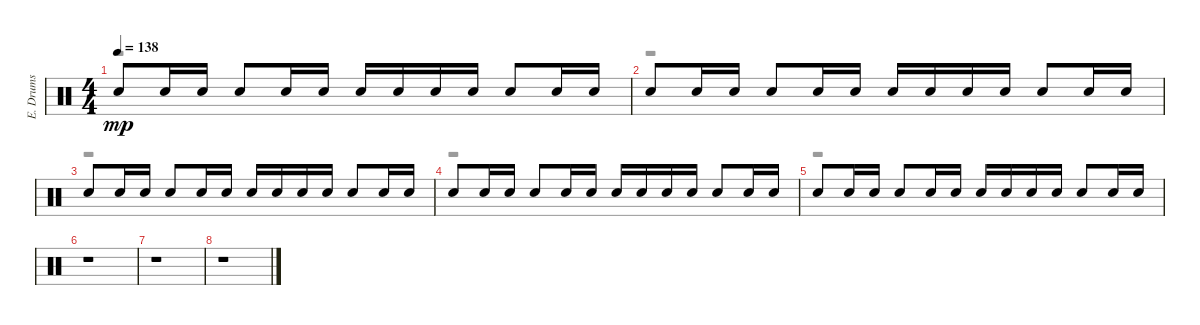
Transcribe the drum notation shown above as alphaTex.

\track ("E. Drums" "E. Drums") {instrument percussion}
\staff {score}
\articulation defaults
\voice
\ts (4 4)
\tempo 138
\clef neutral
\ks c "Electric Snare (hit)".8{dy mp} "Electric Snare (hit)".16 "Electric Snare (hit)".16 "Electric Snare (hit)".8 "Electric Snare (hit)".16 "Electric Snare (hit)".16 "Electric Snare (hit)".16 "Electric Snare (hit)".16 "Electric Snare (hit)".16 "Electric Snare (hit)".16 "Electric Snare (hit)".8 "Electric Snare (hit)".16 "Electric Snare (hit)".16
|
"Electric Snare (hit)".8 "Electric Snare (hit)".16 "Electric Snare (hit)".16 "Electric Snare (hit)".8 "Electric Snare (hit)".16 "Electric Snare (hit)".16 "Electric Snare (hit)".16 "Electric Snare (hit)".16 "Electric Snare (hit)".16 "Electric Snare (hit)".16 "Electric Snare (hit)".8 "Electric Snare (hit)".16 "Electric Snare (hit)".16 |
"Electric Snare (hit)".8 "Electric Snare (hit)".16 "Electric Snare (hit)".16 "Electric Snare (hit)".8 "Electric Snare (hit)".16 "Electric Snare (hit)".16 "Electric Snare (hit)".16 "Electric Snare (hit)".16 "Electric Snare (hit)".16 "Electric Snare (hit)".16 "Electric Snare (hit)".8 "Electric Snare (hit)".16 "Electric Snare (hit)".16 |
"Electric Snare (hit)".8 "Electric Snare (hit)".16 "Electric Snare (hit)".16 "Electric Snare (hit)".8 "Electric Snare (hit)".16 "Electric Snare (hit)".16 "Electric Snare (hit)".16 "Electric Snare (hit)".16 "Electric Snare (hit)".16 "Electric Snare (hit)".16 "Electric Snare (hit)".8 "Electric Snare (hit)".16 "Electric Snare (hit)".16 |
"Electric Snare (hit)".8 "Electric Snare (hit)".16 "Electric Snare (hit)".16 "Electric Snare (hit)".8 "Electric Snare (hit)".16 "Electric Snare (hit)".16 "Electric Snare (hit)".16 "Electric Snare (hit)".16 "Electric Snare (hit)".16 "Electric Snare (hit)".16 "Electric Snare (hit)".8 "Electric Snare (hit)".16 "Electric Snare (hit)".16 |
r.1 |
r.1 |
r.1
\voice
\clef neutral
\ottava regular
\simile none
\ks c
r.1{dy mp} |
r.1 |
r.1 |
r.1 |
r.1 |
r.1 |
r.1 |
r.1
